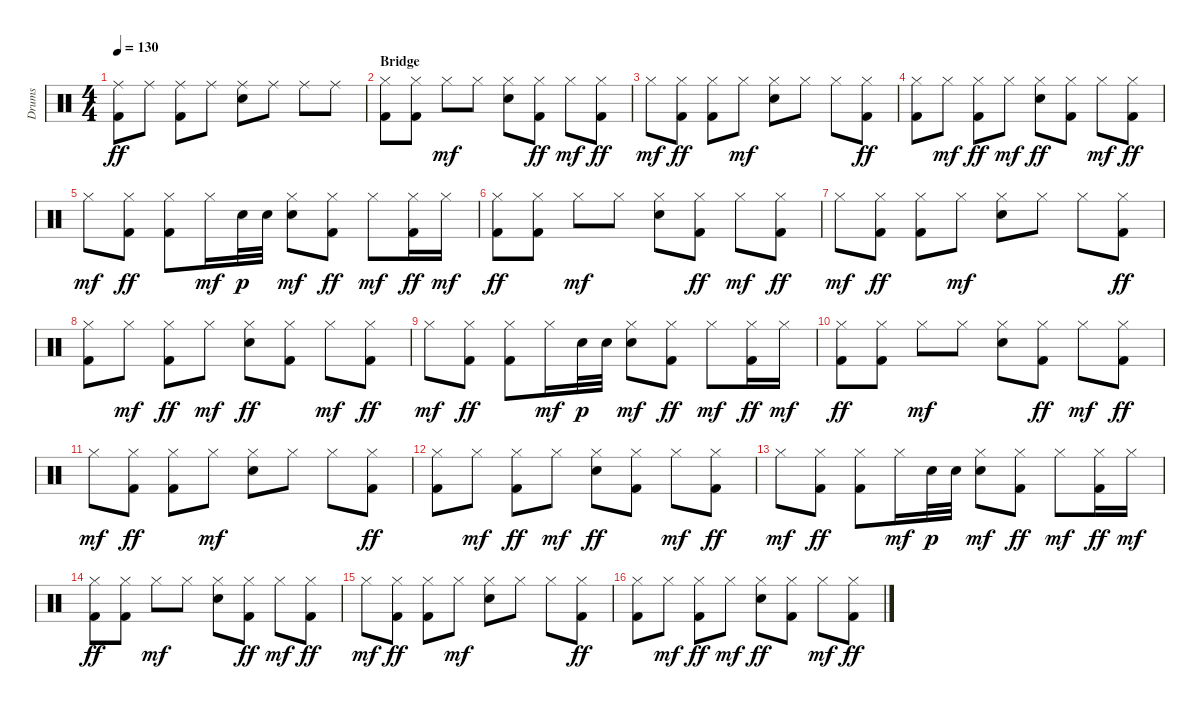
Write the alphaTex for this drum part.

\track ("Drums" "Drums") {instrument percussion}
\staff {score}
\articulation defaults
\ts (4 4)
\tempo 130
\clef neutral
\ks c
("Ride (middle)" "Kick (hit) 2").8{dy ff} "Ride (middle)".8 ("Ride (middle)" "Kick (hit) 2").8 "Ride (middle)".8 ("Ride (middle)" "Snare (hit) 2").8 "Ride (middle)".8 "Ride (middle)".8 "Ride (middle)".8 |
\section ("" "Bridge")
("Hi-Hat (closed)" "Kick (hit) 2").8{volume 7} ("Hi-Hat (closed)" "Kick (hit) 2").8 "Hi-Hat (closed)".8{dy mf} "Hi-Hat (closed)".8 ("Hi-Hat (closed)" "Snare (hit) 2").8 ("Hi-Hat (closed)" "Kick (hit) 2").8{dy ff} "Hi-Hat (closed)".8{dy mf} ("Hi-Hat (closed)" "Kick (hit) 2").8{dy ff} |
"Hi-Hat (closed)".8{dy mf} ("Hi-Hat (closed)" "Kick (hit) 2").8{dy ff} ("Hi-Hat (closed)" "Kick (hit) 2").8 "Hi-Hat (closed)".8{dy mf} ("Hi-Hat (closed)" "Snare (hit) 2").8 "Hi-Hat (closed)".8 "Hi-Hat (closed)".8 ("Hi-Hat (closed)" "Kick (hit) 2").8{dy ff} |
("Hi-Hat (closed)" "Kick (hit) 2").8 "Hi-Hat (closed)".8{dy mf} ("Hi-Hat (closed)" "Kick (hit) 2").8{dy ff} "Hi-Hat (closed)".8{dy mf} ("Hi-Hat (closed)" "Snare (hit) 2").8{dy ff} ("Hi-Hat (closed)" "Kick (hit) 2").8 "Hi-Hat (closed)".8{dy mf} ("Hi-Hat (closed)" "Kick (hit) 2").8{dy ff} |
"Hi-Hat (closed)".8{dy mf} ("Hi-Hat (closed)" "Kick (hit) 2").8{dy ff} ("Hi-Hat (closed)" "Kick (hit) 2").8 "Hi-Hat (closed)".16{dy mf} "Snare (hit) 2".32{dy p} "Snare (hit) 2".32 ("Hi-Hat (closed)" "Snare (hit) 2").8{dy mf} ("Hi-Hat (closed)" "Kick (hit) 2").8{dy ff} "Hi-Hat (closed)".8{dy mf} ("Hi-Hat (closed)" "Kick (hit) 2").16{dy ff} "Hi-Hat (closed)".16{dy mf} |
("Hi-Hat (closed)" "Kick (hit) 2").8{dy ff} ("Hi-Hat (closed)" "Kick (hit) 2").8 "Hi-Hat (closed)".8{dy mf} "Hi-Hat (closed)".8 ("Hi-Hat (closed)" "Snare (hit) 2").8 ("Hi-Hat (closed)" "Kick (hit) 2").8{dy ff} "Hi-Hat (closed)".8{dy mf} ("Hi-Hat (closed)" "Kick (hit) 2").8{dy ff} |
"Hi-Hat (closed)".8{dy mf} ("Hi-Hat (closed)" "Kick (hit) 2").8{dy ff} ("Hi-Hat (closed)" "Kick (hit) 2").8 "Hi-Hat (closed)".8{dy mf} ("Hi-Hat (closed)" "Snare (hit) 2").8 "Hi-Hat (closed)".8 "Hi-Hat (closed)".8 ("Hi-Hat (closed)" "Kick (hit) 2").8{dy ff} |
("Hi-Hat (closed)" "Kick (hit) 2").8 "Hi-Hat (closed)".8{dy mf} ("Hi-Hat (closed)" "Kick (hit) 2").8{dy ff} "Hi-Hat (closed)".8{dy mf} ("Hi-Hat (closed)" "Snare (hit) 2").8{dy ff} ("Hi-Hat (closed)" "Kick (hit) 2").8 "Hi-Hat (closed)".8{dy mf} ("Hi-Hat (closed)" "Kick (hit) 2").8{dy ff} |
"Hi-Hat (closed)".8{dy mf} ("Hi-Hat (closed)" "Kick (hit) 2").8{dy ff} ("Hi-Hat (closed)" "Kick (hit) 2").8 "Hi-Hat (closed)".16{dy mf} "Snare (hit) 2".32{dy p} "Snare (hit) 2".32 ("Hi-Hat (closed)" "Snare (hit) 2").8{dy mf} ("Hi-Hat (closed)" "Kick (hit) 2").8{dy ff} "Hi-Hat (closed)".8{dy mf} ("Hi-Hat (closed)" "Kick (hit) 2").16{dy ff} "Hi-Hat (closed)".16{dy mf} |
("Hi-Hat (closed)" "Kick (hit) 2").8{dy ff} ("Hi-Hat (closed)" "Kick (hit) 2").8 "Hi-Hat (closed)".8{dy mf} "Hi-Hat (closed)".8 ("Hi-Hat (closed)" "Snare (hit) 2").8 ("Hi-Hat (closed)" "Kick (hit) 2").8{dy ff} "Hi-Hat (closed)".8{dy mf} ("Hi-Hat (closed)" "Kick (hit) 2").8{dy ff} |
"Hi-Hat (closed)".8{dy mf} ("Hi-Hat (closed)" "Kick (hit) 2").8{dy ff} ("Hi-Hat (closed)" "Kick (hit) 2").8 "Hi-Hat (closed)".8{dy mf} ("Hi-Hat (closed)" "Snare (hit) 2").8 "Hi-Hat (closed)".8 "Hi-Hat (closed)".8 ("Hi-Hat (closed)" "Kick (hit) 2").8{dy ff} |
("Hi-Hat (closed)" "Kick (hit) 2").8 "Hi-Hat (closed)".8{dy mf} ("Hi-Hat (closed)" "Kick (hit) 2").8{dy ff} "Hi-Hat (closed)".8{dy mf} ("Hi-Hat (closed)" "Snare (hit) 2").8{dy ff} ("Hi-Hat (closed)" "Kick (hit) 2").8 "Hi-Hat (closed)".8{dy mf} ("Hi-Hat (closed)" "Kick (hit) 2").8{dy ff} |
"Hi-Hat (closed)".8{dy mf} ("Hi-Hat (closed)" "Kick (hit) 2").8{dy ff} ("Hi-Hat (closed)" "Kick (hit) 2").8 "Hi-Hat (closed)".16{dy mf} "Snare (hit) 2".32{dy p} "Snare (hit) 2".32 ("Hi-Hat (closed)" "Snare (hit) 2").8{dy mf} ("Hi-Hat (closed)" "Kick (hit) 2").8{dy ff} "Hi-Hat (closed)".8{dy mf} ("Hi-Hat (closed)" "Kick (hit) 2").16{dy ff} "Hi-Hat (closed)".16{dy mf} |
("Hi-Hat (closed)" "Kick (hit) 2").8{dy ff} ("Hi-Hat (closed)" "Kick (hit) 2").8 "Hi-Hat (closed)".8{dy mf} "Hi-Hat (closed)".8 ("Hi-Hat (closed)" "Snare (hit) 2").8 ("Hi-Hat (closed)" "Kick (hit) 2").8{dy ff} "Hi-Hat (closed)".8{dy mf} ("Hi-Hat (closed)" "Kick (hit) 2").8{dy ff} |
"Hi-Hat (closed)".8{dy mf} ("Hi-Hat (closed)" "Kick (hit) 2").8{dy ff} ("Hi-Hat (closed)" "Kick (hit) 2").8 "Hi-Hat (closed)".8{dy mf} ("Hi-Hat (closed)" "Snare (hit) 2").8 "Hi-Hat (closed)".8 "Hi-Hat (closed)".8 ("Hi-Hat (closed)" "Kick (hit) 2").8{dy ff} |
("Hi-Hat (closed)" "Kick (hit) 2").8 "Hi-Hat (closed)".8{dy mf} ("Hi-Hat (closed)" "Kick (hit) 2").8{dy ff} "Hi-Hat (closed)".8{dy mf} ("Hi-Hat (closed)" "Snare (hit) 2").8{dy ff} ("Hi-Hat (closed)" "Kick (hit) 2").8 "Hi-Hat (closed)".8{dy mf} ("Hi-Hat (closed)" "Kick (hit) 2").8{dy ff}
